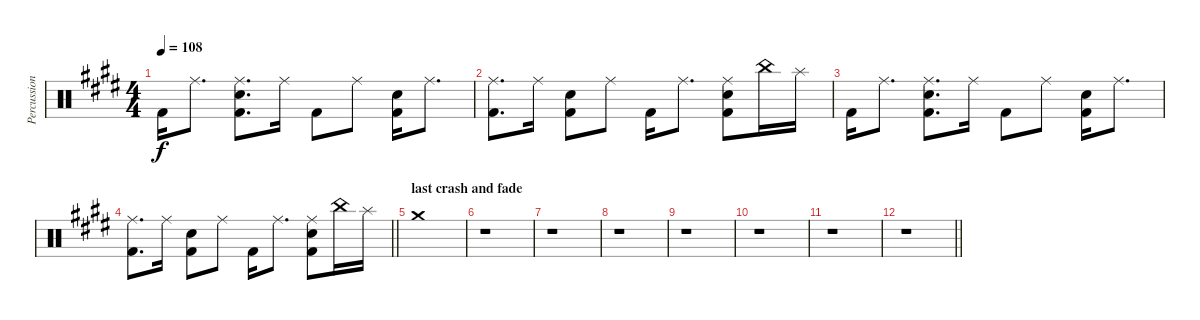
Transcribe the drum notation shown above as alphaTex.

\track ("Percussion" "Percussion") {instrument percussion}
\staff {score}
\articulation defaults
\ts (4 4)
\tempo 108
\clef neutral
\ks e "Kick (hit) 2".16{dy f} "Ride (middle)".8{d}
("Ride (middle)" "Electric Snare (hit)" "Kick (hit) 2").8{d} "Ride (middle)".16 "Kick (hit) 2".8 "Ride (middle)".8 ("Electric Snare (hit)" "Kick (hit) 2").16 "Ride (middle)".8{d} |
("Ride (middle)" "Kick (hit) 2").8{d} "Ride (middle)".16 ("Electric Snare (hit)" "Kick (hit) 2").8 "Ride (middle)".8 "Kick (hit) 2".16 "Ride (middle)".8{d} ("Ride (middle)" "Electric Snare (hit)" "Kick (hit) 2").8 "China (hit)".16 "Splash (hit)".16 |
"Kick (hit) 2".16 "Ride (middle)".8{d} ("Ride (middle)" "Electric Snare (hit)" "Kick (hit) 2").8{d} "Ride (middle)".16 "Kick (hit) 2".8 "Ride (middle)".8 ("Electric Snare (hit)" "Kick (hit) 2").16 "Ride (middle)".8{d} |
\barLineRight lightlight
("Ride (middle)" "Kick (hit) 2").8{d} "Ride (middle)".16 ("Electric Snare (hit)" "Kick (hit) 2").8 "Ride (middle)".8 "Kick (hit) 2".16 "Ride (middle)".8{d} ("Ride (middle)" "Electric Snare (hit)" "Kick (hit) 2").8 "China (hit)".16 "Splash (hit)".16 |
\section ("" "last crash and fade")
"Crash medium (hit)".1 |
r.1 |
r.1 |
r.1 |
r.1 |
r.1 |
r.1 |
\barLineRight lightlight
r.1
